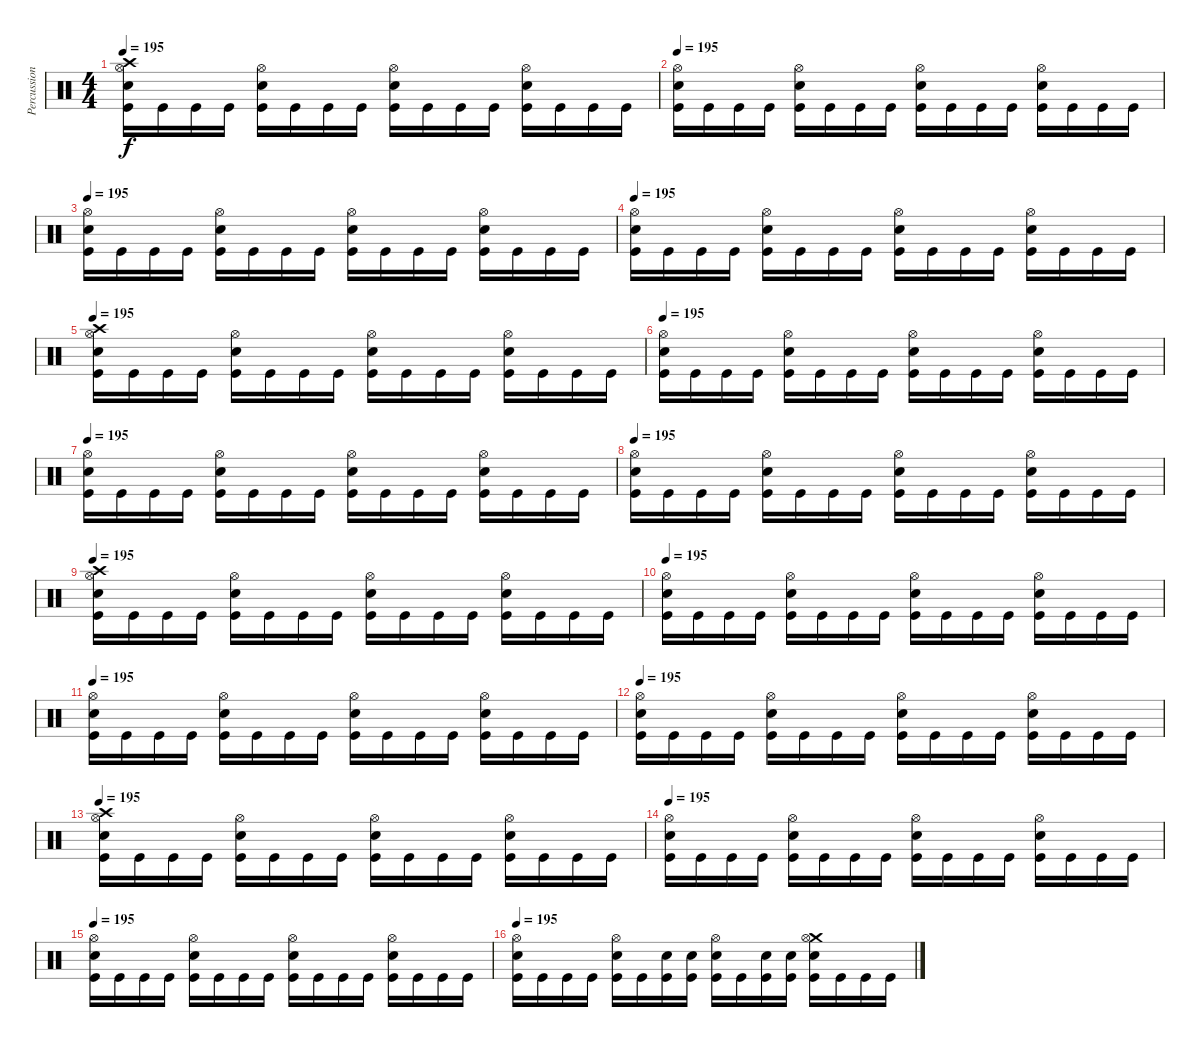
\track ("Percussion" "Percussion") {instrument percussion}
\staff {score}
\articulation defaults
\ts (4 4)
\tempo 195
\clef neutral
\ks c
("Crash high (hit)" "Hi-Hat (open)" "Electric Snare (hit)" "Kick (hit)").16{dy f} "Kick (hit)".16 "Kick (hit)".16 "Kick (hit)".16 ("Hi-Hat (open)" "Electric Snare (hit)" "Kick (hit)").16 "Kick (hit)".16 "Kick (hit)".16 "Kick (hit)".16 ("Hi-Hat (open)" "Electric Snare (hit)" "Kick (hit)").16 "Kick (hit)".16 "Kick (hit)".16 "Kick (hit)".16 ("Hi-Hat (open)" "Electric Snare (hit)" "Kick (hit)").16 "Kick (hit)".16 "Kick (hit)".16 "Kick (hit)".16 |
\tempo 195
("Hi-Hat (open)" "Electric Snare (hit)" "Kick (hit)").16 "Kick (hit)".16 "Kick (hit)".16 "Kick (hit)".16 ("Hi-Hat (open)" "Electric Snare (hit)" "Kick (hit)").16 "Kick (hit)".16 "Kick (hit)".16 "Kick (hit)".16 ("Hi-Hat (open)" "Electric Snare (hit)" "Kick (hit)").16 "Kick (hit)".16 "Kick (hit)".16 "Kick (hit)".16 ("Hi-Hat (open)" "Electric Snare (hit)" "Kick (hit)").16 "Kick (hit)".16 "Kick (hit)".16 "Kick (hit)".16 |
\tempo 195
("Hi-Hat (open)" "Electric Snare (hit)" "Kick (hit)").16 "Kick (hit)".16 "Kick (hit)".16 "Kick (hit)".16 ("Hi-Hat (open)" "Electric Snare (hit)" "Kick (hit)").16 "Kick (hit)".16 "Kick (hit)".16 "Kick (hit)".16 ("Hi-Hat (open)" "Electric Snare (hit)" "Kick (hit)").16 "Kick (hit)".16 "Kick (hit)".16 "Kick (hit)".16 ("Hi-Hat (open)" "Electric Snare (hit)" "Kick (hit)").16 "Kick (hit)".16 "Kick (hit)".16 "Kick (hit)".16 |
\tempo 195
("Hi-Hat (open)" "Electric Snare (hit)" "Kick (hit)").16 "Kick (hit)".16 "Kick (hit)".16 "Kick (hit)".16 ("Hi-Hat (open)" "Electric Snare (hit)" "Kick (hit)").16 "Kick (hit)".16 "Kick (hit)".16 "Kick (hit)".16 ("Hi-Hat (open)" "Electric Snare (hit)" "Kick (hit)").16 "Kick (hit)".16 "Kick (hit)".16 "Kick (hit)".16 ("Hi-Hat (open)" "Electric Snare (hit)" "Kick (hit)").16 "Kick (hit)".16 "Kick (hit)".16 "Kick (hit)".16 |
\tempo 195
("Crash high (hit)" "Hi-Hat (open)" "Electric Snare (hit)" "Kick (hit)").16 "Kick (hit)".16 "Kick (hit)".16 "Kick (hit)".16 ("Hi-Hat (open)" "Electric Snare (hit)" "Kick (hit)").16 "Kick (hit)".16 "Kick (hit)".16 "Kick (hit)".16 ("Hi-Hat (open)" "Electric Snare (hit)" "Kick (hit)").16 "Kick (hit)".16 "Kick (hit)".16 "Kick (hit)".16 ("Hi-Hat (open)" "Electric Snare (hit)" "Kick (hit)").16 "Kick (hit)".16 "Kick (hit)".16 "Kick (hit)".16 |
\tempo 195
("Hi-Hat (open)" "Electric Snare (hit)" "Kick (hit)").16 "Kick (hit)".16 "Kick (hit)".16 "Kick (hit)".16 ("Hi-Hat (open)" "Electric Snare (hit)" "Kick (hit)").16 "Kick (hit)".16 "Kick (hit)".16 "Kick (hit)".16 ("Hi-Hat (open)" "Electric Snare (hit)" "Kick (hit)").16 "Kick (hit)".16 "Kick (hit)".16 "Kick (hit)".16 ("Hi-Hat (open)" "Electric Snare (hit)" "Kick (hit)").16 "Kick (hit)".16 "Kick (hit)".16 "Kick (hit)".16 |
\tempo 195
("Hi-Hat (open)" "Electric Snare (hit)" "Kick (hit)").16 "Kick (hit)".16 "Kick (hit)".16 "Kick (hit)".16 ("Hi-Hat (open)" "Electric Snare (hit)" "Kick (hit)").16 "Kick (hit)".16 "Kick (hit)".16 "Kick (hit)".16 ("Hi-Hat (open)" "Electric Snare (hit)" "Kick (hit)").16 "Kick (hit)".16 "Kick (hit)".16 "Kick (hit)".16 ("Hi-Hat (open)" "Electric Snare (hit)" "Kick (hit)").16 "Kick (hit)".16 "Kick (hit)".16 "Kick (hit)".16 |
\tempo 195
("Hi-Hat (open)" "Electric Snare (hit)" "Kick (hit)").16 "Kick (hit)".16 "Kick (hit)".16 "Kick (hit)".16 ("Hi-Hat (open)" "Electric Snare (hit)" "Kick (hit)").16 "Kick (hit)".16 "Kick (hit)".16 "Kick (hit)".16 ("Hi-Hat (open)" "Electric Snare (hit)" "Kick (hit)").16 "Kick (hit)".16 "Kick (hit)".16 "Kick (hit)".16 ("Hi-Hat (open)" "Electric Snare (hit)" "Kick (hit)").16 "Kick (hit)".16 "Kick (hit)".16 "Kick (hit)".16 |
\tempo 195
("Crash high (hit)" "Hi-Hat (open)" "Electric Snare (hit)" "Kick (hit)").16 "Kick (hit)".16 "Kick (hit)".16 "Kick (hit)".16 ("Hi-Hat (open)" "Electric Snare (hit)" "Kick (hit)").16 "Kick (hit)".16 "Kick (hit)".16 "Kick (hit)".16 ("Hi-Hat (open)" "Electric Snare (hit)" "Kick (hit)").16 "Kick (hit)".16 "Kick (hit)".16 "Kick (hit)".16 ("Hi-Hat (open)" "Electric Snare (hit)" "Kick (hit)").16 "Kick (hit)".16 "Kick (hit)".16 "Kick (hit)".16 |
\tempo 195
("Hi-Hat (open)" "Electric Snare (hit)" "Kick (hit)").16 "Kick (hit)".16 "Kick (hit)".16 "Kick (hit)".16 ("Hi-Hat (open)" "Electric Snare (hit)" "Kick (hit)").16 "Kick (hit)".16 "Kick (hit)".16 "Kick (hit)".16 ("Hi-Hat (open)" "Electric Snare (hit)" "Kick (hit)").16 "Kick (hit)".16 "Kick (hit)".16 "Kick (hit)".16 ("Hi-Hat (open)" "Electric Snare (hit)" "Kick (hit)").16 "Kick (hit)".16 "Kick (hit)".16 "Kick (hit)".16 |
\tempo 195
("Hi-Hat (open)" "Electric Snare (hit)" "Kick (hit)").16 "Kick (hit)".16 "Kick (hit)".16 "Kick (hit)".16 ("Hi-Hat (open)" "Electric Snare (hit)" "Kick (hit)").16 "Kick (hit)".16 "Kick (hit)".16 "Kick (hit)".16 ("Hi-Hat (open)" "Electric Snare (hit)" "Kick (hit)").16 "Kick (hit)".16 "Kick (hit)".16 "Kick (hit)".16 ("Hi-Hat (open)" "Electric Snare (hit)" "Kick (hit)").16 "Kick (hit)".16 "Kick (hit)".16 "Kick (hit)".16 |
\tempo 195
("Hi-Hat (open)" "Electric Snare (hit)" "Kick (hit)").16 "Kick (hit)".16 "Kick (hit)".16 "Kick (hit)".16 ("Hi-Hat (open)" "Electric Snare (hit)" "Kick (hit)").16 "Kick (hit)".16 "Kick (hit)".16 "Kick (hit)".16 ("Hi-Hat (open)" "Electric Snare (hit)" "Kick (hit)").16 "Kick (hit)".16 "Kick (hit)".16 "Kick (hit)".16 ("Hi-Hat (open)" "Electric Snare (hit)" "Kick (hit)").16 "Kick (hit)".16 "Kick (hit)".16 "Kick (hit)".16 |
\tempo 195
("Crash high (hit)" "Hi-Hat (open)" "Electric Snare (hit)" "Kick (hit)").16 "Kick (hit)".16 "Kick (hit)".16 "Kick (hit)".16 ("Hi-Hat (open)" "Electric Snare (hit)" "Kick (hit)").16 "Kick (hit)".16 "Kick (hit)".16 "Kick (hit)".16 ("Hi-Hat (open)" "Electric Snare (hit)" "Kick (hit)").16 "Kick (hit)".16 "Kick (hit)".16 "Kick (hit)".16 ("Hi-Hat (open)" "Electric Snare (hit)" "Kick (hit)").16 "Kick (hit)".16 "Kick (hit)".16 "Kick (hit)".16 |
\tempo 195
("Hi-Hat (open)" "Electric Snare (hit)" "Kick (hit)").16 "Kick (hit)".16 "Kick (hit)".16 "Kick (hit)".16 ("Hi-Hat (open)" "Electric Snare (hit)" "Kick (hit)").16 "Kick (hit)".16 "Kick (hit)".16 "Kick (hit)".16 ("Hi-Hat (open)" "Electric Snare (hit)" "Kick (hit)").16 "Kick (hit)".16 "Kick (hit)".16 "Kick (hit)".16 ("Hi-Hat (open)" "Electric Snare (hit)" "Kick (hit)").16 "Kick (hit)".16 "Kick (hit)".16 "Kick (hit)".16 |
\tempo 195
("Hi-Hat (open)" "Electric Snare (hit)" "Kick (hit)").16 "Kick (hit)".16 "Kick (hit)".16 "Kick (hit)".16 ("Hi-Hat (open)" "Electric Snare (hit)" "Kick (hit)").16 "Kick (hit)".16 "Kick (hit)".16 "Kick (hit)".16 ("Hi-Hat (open)" "Electric Snare (hit)" "Kick (hit)").16 "Kick (hit)".16 "Kick (hit)".16 "Kick (hit)".16 ("Hi-Hat (open)" "Electric Snare (hit)" "Kick (hit)").16 "Kick (hit)".16 "Kick (hit)".16 "Kick (hit)".16 |
\tempo 195
("Hi-Hat (open)" "Electric Snare (hit)" "Kick (hit)").16 "Kick (hit)".16 "Kick (hit)".16 "Kick (hit)".16 ("Hi-Hat (open)" "Electric Snare (hit)" "Kick (hit)").16 "Kick (hit)".16 ("Electric Snare (hit)" "Kick (hit)").16 ("Electric Snare (hit)" "Kick (hit)").16 ("Hi-Hat (open)" "Electric Snare (hit)" "Kick (hit)").16 "Kick (hit)".16 ("Electric Snare (hit)" "Kick (hit)").16 ("Electric Snare (hit)" "Kick (hit)").16 ("Crash medium (hit)" "Hi-Hat (open)" "Electric Snare (hit)" "Kick (hit)").16 "Kick (hit)".16 "Kick (hit)".16 "Kick (hit)".16
